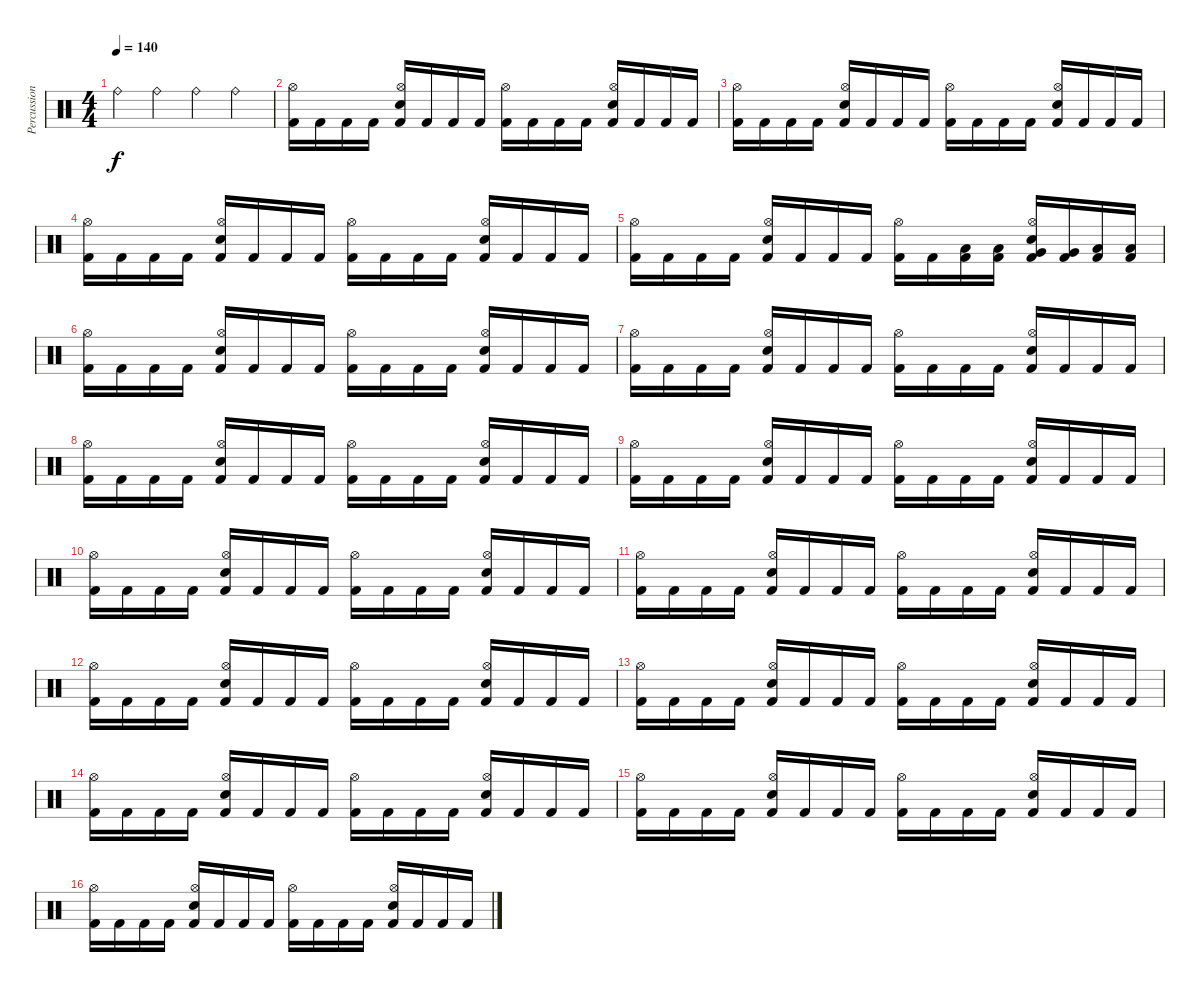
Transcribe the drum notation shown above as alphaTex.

\track ("Percussion" "Percussion") {instrument percussion}
\staff {score}
\articulation defaults
\ts (4 4)
\tempo 140
\clef neutral
\ks c "Ride (bell)".4{dy f} "Ride (bell)".4 "Ride (bell)".4 "Ride (bell)".4
|
\section ("" "")
("Kick (hit) 2" "Hi-Hat (open)").16 "Kick (hit) 2".16 "Kick (hit) 2".16 "Kick (hit) 2".16 ("Kick (hit) 2" "Electric Snare (hit)" "Hi-Hat (open)").16 "Kick (hit) 2".16 "Kick (hit) 2".16 "Kick (hit) 2".16 ("Kick (hit) 2" "Hi-Hat (open)").16 "Kick (hit) 2".16 "Kick (hit) 2".16 "Kick (hit) 2".16 ("Kick (hit) 2" "Electric Snare (hit)" "Hi-Hat (open)").16 "Kick (hit) 2".16 "Kick (hit) 2".16 "Kick (hit) 2".16 |
("Kick (hit) 2" "Hi-Hat (open)").16 "Kick (hit) 2".16 "Kick (hit) 2".16 "Kick (hit) 2".16 ("Kick (hit) 2" "Electric Snare (hit)" "Hi-Hat (open)").16 "Kick (hit) 2".16 "Kick (hit) 2".16 "Kick (hit) 2".16 ("Kick (hit) 2" "Hi-Hat (open)").16 "Kick (hit) 2".16 "Kick (hit) 2".16 "Kick (hit) 2".16 ("Kick (hit) 2" "Electric Snare (hit)" "Hi-Hat (open)").16 "Kick (hit) 2".16 "Kick (hit) 2".16 "Kick (hit) 2".16 |
("Kick (hit) 2" "Hi-Hat (open)").16 "Kick (hit) 2".16 "Kick (hit) 2".16 "Kick (hit) 2".16 ("Kick (hit) 2" "Electric Snare (hit)" "Hi-Hat (open)").16 "Kick (hit) 2".16 "Kick (hit) 2".16 "Kick (hit) 2".16 ("Kick (hit) 2" "Hi-Hat (open)").16 "Kick (hit) 2".16 "Kick (hit) 2".16 "Kick (hit) 2".16 ("Kick (hit) 2" "Electric Snare (hit)" "Hi-Hat (open)").16 "Kick (hit) 2".16 "Kick (hit) 2".16 "Kick (hit) 2".16 |
("Kick (hit) 2" "Hi-Hat (open)").16 "Kick (hit) 2".16 "Kick (hit) 2".16 "Kick (hit) 2".16 ("Kick (hit) 2" "Electric Snare (hit)" "Hi-Hat (open)").16 "Kick (hit) 2".16 "Kick (hit) 2".16 "Kick (hit) 2".16 ("Kick (hit) 2" "Hi-Hat (open)").16 "Kick (hit) 2".16 ("Low Tom (hit)" "Kick (hit) 2").16 ("Low Tom (hit)" "Kick (hit) 2").16 ("Very Low Tom (hit)" "Kick (hit) 2" "Electric Snare (hit)" "Hi-Hat (open)").16 ("Very Low Tom (hit)" "Kick (hit) 2").16 ("Low Floor Tom (hit)" "Kick (hit) 2").16 ("Low Floor Tom (hit)" "Kick (hit) 2").16 |
("Kick (hit) 2" "Hi-Hat (open)").16 "Kick (hit) 2".16 "Kick (hit) 2".16 "Kick (hit) 2".16 ("Kick (hit) 2" "Electric Snare (hit)" "Hi-Hat (open)").16 "Kick (hit) 2".16 "Kick (hit) 2".16 "Kick (hit) 2".16 ("Kick (hit) 2" "Hi-Hat (open)").16 "Kick (hit) 2".16 "Kick (hit) 2".16 "Kick (hit) 2".16 ("Kick (hit) 2" "Electric Snare (hit)" "Hi-Hat (open)").16 "Kick (hit) 2".16 "Kick (hit) 2".16 "Kick (hit) 2".16 |
("Kick (hit) 2" "Hi-Hat (open)").16 "Kick (hit) 2".16 "Kick (hit) 2".16 "Kick (hit) 2".16 ("Kick (hit) 2" "Electric Snare (hit)" "Hi-Hat (open)").16 "Kick (hit) 2".16 "Kick (hit) 2".16 "Kick (hit) 2".16 ("Kick (hit) 2" "Hi-Hat (open)").16 "Kick (hit) 2".16 "Kick (hit) 2".16 "Kick (hit) 2".16 ("Kick (hit) 2" "Electric Snare (hit)" "Hi-Hat (open)").16 "Kick (hit) 2".16 "Kick (hit) 2".16 "Kick (hit) 2".16 |
("Kick (hit) 2" "Hi-Hat (open)").16 "Kick (hit) 2".16 "Kick (hit) 2".16 "Kick (hit) 2".16 ("Kick (hit) 2" "Electric Snare (hit)" "Hi-Hat (open)").16 "Kick (hit) 2".16 "Kick (hit) 2".16 "Kick (hit) 2".16 ("Kick (hit) 2" "Hi-Hat (open)").16 "Kick (hit) 2".16 "Kick (hit) 2".16 "Kick (hit) 2".16 ("Kick (hit) 2" "Electric Snare (hit)" "Hi-Hat (open)").16 "Kick (hit) 2".16 "Kick (hit) 2".16 "Kick (hit) 2".16 |
("Kick (hit) 2" "Hi-Hat (open)").16 "Kick (hit) 2".16 "Kick (hit) 2".16 "Kick (hit) 2".16 ("Kick (hit) 2" "Electric Snare (hit)" "Hi-Hat (open)").16 "Kick (hit) 2".16 "Kick (hit) 2".16 "Kick (hit) 2".16 ("Kick (hit) 2" "Hi-Hat (open)").16 "Kick (hit) 2".16 "Kick (hit) 2".16 "Kick (hit) 2".16 ("Kick (hit) 2" "Electric Snare (hit)" "Hi-Hat (open)").16 "Kick (hit) 2".16 "Kick (hit) 2".16 "Kick (hit) 2".16 |
("Kick (hit) 2" "Hi-Hat (open)").16 "Kick (hit) 2".16 "Kick (hit) 2".16 "Kick (hit) 2".16 ("Kick (hit) 2" "Electric Snare (hit)" "Hi-Hat (open)").16 "Kick (hit) 2".16 "Kick (hit) 2".16 "Kick (hit) 2".16 ("Kick (hit) 2" "Hi-Hat (open)").16 "Kick (hit) 2".16 "Kick (hit) 2".16 "Kick (hit) 2".16 ("Kick (hit) 2" "Electric Snare (hit)" "Hi-Hat (open)").16 "Kick (hit) 2".16 "Kick (hit) 2".16 "Kick (hit) 2".16 |
("Kick (hit) 2" "Hi-Hat (open)").16 "Kick (hit) 2".16 "Kick (hit) 2".16 "Kick (hit) 2".16 ("Kick (hit) 2" "Electric Snare (hit)" "Hi-Hat (open)").16 "Kick (hit) 2".16 "Kick (hit) 2".16 "Kick (hit) 2".16 ("Kick (hit) 2" "Hi-Hat (open)").16 "Kick (hit) 2".16 "Kick (hit) 2".16 "Kick (hit) 2".16 ("Kick (hit) 2" "Electric Snare (hit)" "Hi-Hat (open)").16 "Kick (hit) 2".16 "Kick (hit) 2".16 "Kick (hit) 2".16 |
("Kick (hit) 2" "Hi-Hat (open)").16 "Kick (hit) 2".16 "Kick (hit) 2".16 "Kick (hit) 2".16 ("Kick (hit) 2" "Electric Snare (hit)" "Hi-Hat (open)").16 "Kick (hit) 2".16 "Kick (hit) 2".16 "Kick (hit) 2".16 ("Kick (hit) 2" "Hi-Hat (open)").16 "Kick (hit) 2".16 "Kick (hit) 2".16 "Kick (hit) 2".16 ("Kick (hit) 2" "Electric Snare (hit)" "Hi-Hat (open)").16 "Kick (hit) 2".16 "Kick (hit) 2".16 "Kick (hit) 2".16 |
("Kick (hit) 2" "Hi-Hat (open)").16 "Kick (hit) 2".16 "Kick (hit) 2".16 "Kick (hit) 2".16 ("Kick (hit) 2" "Electric Snare (hit)" "Hi-Hat (open)").16 "Kick (hit) 2".16 "Kick (hit) 2".16 "Kick (hit) 2".16 ("Kick (hit) 2" "Hi-Hat (open)").16 "Kick (hit) 2".16 "Kick (hit) 2".16 "Kick (hit) 2".16 ("Kick (hit) 2" "Electric Snare (hit)" "Hi-Hat (open)").16 "Kick (hit) 2".16 "Kick (hit) 2".16 "Kick (hit) 2".16 |
("Kick (hit) 2" "Hi-Hat (open)").16 "Kick (hit) 2".16 "Kick (hit) 2".16 "Kick (hit) 2".16 ("Kick (hit) 2" "Electric Snare (hit)" "Hi-Hat (open)").16 "Kick (hit) 2".16 "Kick (hit) 2".16 "Kick (hit) 2".16 ("Kick (hit) 2" "Hi-Hat (open)").16 "Kick (hit) 2".16 "Kick (hit) 2".16 "Kick (hit) 2".16 ("Kick (hit) 2" "Electric Snare (hit)" "Hi-Hat (open)").16 "Kick (hit) 2".16 "Kick (hit) 2".16 "Kick (hit) 2".16 |
("Kick (hit) 2" "Hi-Hat (open)").16 "Kick (hit) 2".16 "Kick (hit) 2".16 "Kick (hit) 2".16 ("Kick (hit) 2" "Electric Snare (hit)" "Hi-Hat (open)").16 "Kick (hit) 2".16 "Kick (hit) 2".16 "Kick (hit) 2".16 ("Kick (hit) 2" "Hi-Hat (open)").16 "Kick (hit) 2".16 "Kick (hit) 2".16 "Kick (hit) 2".16 ("Kick (hit) 2" "Electric Snare (hit)" "Hi-Hat (open)").16 "Kick (hit) 2".16 "Kick (hit) 2".16 "Kick (hit) 2".16 |
("Kick (hit) 2" "Hi-Hat (open)").16 "Kick (hit) 2".16 "Kick (hit) 2".16 "Kick (hit) 2".16 ("Kick (hit) 2" "Electric Snare (hit)" "Hi-Hat (open)").16 "Kick (hit) 2".16 "Kick (hit) 2".16 "Kick (hit) 2".16 ("Kick (hit) 2" "Hi-Hat (open)").16 "Kick (hit) 2".16 "Kick (hit) 2".16 "Kick (hit) 2".16 ("Kick (hit) 2" "Electric Snare (hit)" "Hi-Hat (open)").16 "Kick (hit) 2".16 "Kick (hit) 2".16 "Kick (hit) 2".16
